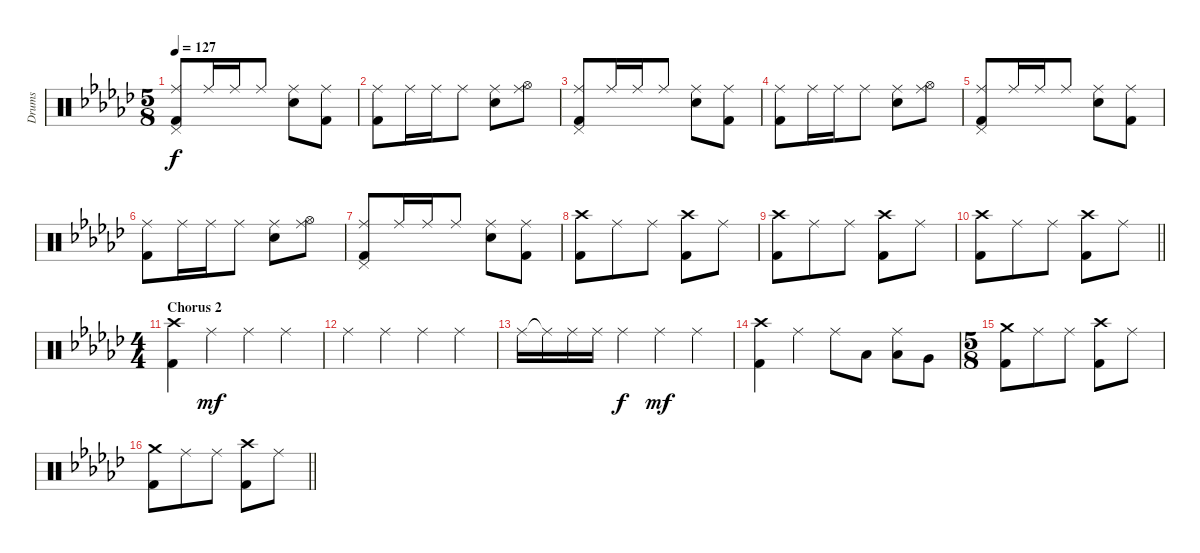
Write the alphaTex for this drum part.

\track ("Drums" "Drums") {instrument percussion}
\staff {score}
\articulation defaults
\ts (5 8)
\tempo 127
\clef neutral
\ks ebminor
("Ride (middle)" "Kick (hit) 2" "Pedal Hi-Hat (hit)").8{dy f} "Ride (middle)".16 "Ride (middle)".16 "Ride (middle)".8 ("Ride (middle)" "Electric Snare (hit)").8 ("Ride (middle)" "Kick (hit) 2").8 |
("Ride (middle)" "Kick (hit) 2").8 "Ride (middle)".16 "Ride (middle)".16 "Ride (middle)".8 ("Ride (middle)" "Electric Snare (hit)").8 ("Ride (middle)" "Hi-Hat (open)").8 |
("Ride (middle)" "Kick (hit) 2" "Pedal Hi-Hat (hit)").8 "Ride (middle)".16 "Ride (middle)".16 "Ride (middle)".8 ("Ride (middle)" "Electric Snare (hit)").8 ("Ride (middle)" "Kick (hit) 2").8 |
("Ride (middle)" "Kick (hit) 2").8 "Ride (middle)".16 "Ride (middle)".16 "Ride (middle)".8 ("Ride (middle)" "Electric Snare (hit)").8 ("Ride (middle)" "Hi-Hat (open)").8 |
("Ride (middle)" "Kick (hit) 2" "Pedal Hi-Hat (hit)").8 "Ride (middle)".16 "Ride (middle)".16 "Ride (middle)".8 ("Ride (middle)" "Electric Snare (hit)").8 ("Ride (middle)" "Kick (hit) 2").8 |
("Ride (middle)" "Kick (hit) 2").8 "Ride (middle)".16 "Ride (middle)".16 "Ride (middle)".8 ("Ride (middle)" "Electric Snare (hit)").8 ("Ride (middle)" "Hi-Hat (open)").8 |
("Ride (middle)" "Kick (hit) 2" "Pedal Hi-Hat (hit)").8 "Ride (middle)".16 "Ride (middle)".16 "Ride (middle)".8 ("Ride (middle)" "Electric Snare (hit)").8 ("Ride (middle)" "Kick (hit) 2").8 |
("Crash high (hit)" "Kick (hit) 2").8 "Ride (middle)".8 "Ride (middle)".8 ("Crash high (hit)" "Kick (hit) 2").8 "Ride (middle)".8 |
("Crash high (hit)" "Kick (hit) 2").8 "Ride (middle)".8 "Ride (middle)".8 ("Crash high (hit)" "Kick (hit) 2").8 "Ride (middle)".8 |
\barLineRight lightlight
("Crash high (hit)" "Kick (hit) 2").8 "Ride (middle)".8 "Ride (middle)".8 ("Crash high (hit)" "Kick (hit) 2").8 "Ride (middle)".8 |
\ts (4 4)
\section ("" "Chorus 2")
("Crash high (hit)" "Kick (hit) 2").4 "Ride (middle)".4{dy mf} "Ride (middle)".4 "Ride (middle)".4 |
"Ride (middle)".4 "Ride (middle)".4 "Ride (middle)".4 "Ride (middle)".4 |
"Ride (middle)".16 "Ride (middle)"{t}.16 "Ride (middle)".16 "Ride (middle)".16 "Ride (middle)".4{dy f} "Ride (middle)".4{dy mf} "Ride (middle)".4 |
("Crash high (hit)" "Kick (hit) 2").4 "Ride (middle)".4 "Ride (middle)".8 "Low Tom (hit)".8 ("Ride (middle)" "Low Tom (hit)").8 "Very Low Tom (hit)".8 |
\ts (5 8)
("Crash medium (hit)" "Kick (hit) 2").8 "Ride (middle)".8 "Ride (middle)".8 ("Crash high (hit)" "Kick (hit) 2").8 "Ride (middle)".8 |
\barLineRight lightlight
("Crash medium (hit)" "Kick (hit) 2").8 "Ride (middle)".8 "Ride (middle)".8 ("Crash high (hit)" "Kick (hit) 2").8 "Ride (middle)".8
